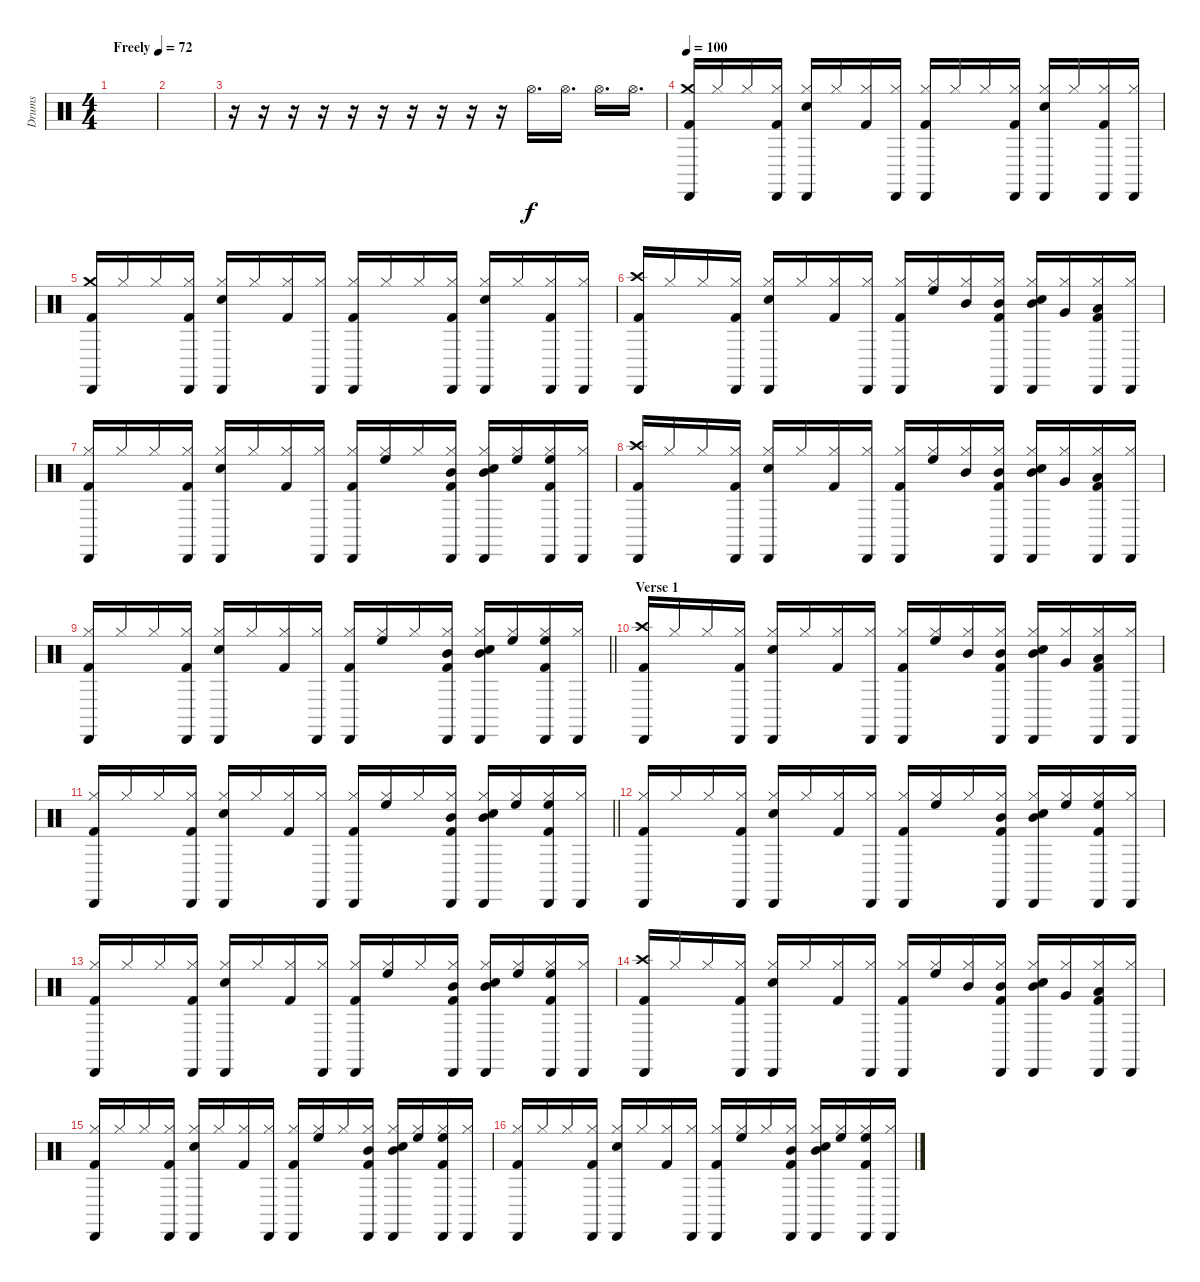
\track ("Drums" "Drums") {instrument percussion}
\staff {score}
\articulation defaults
\ts (4 4)
\tempo (72 "Freely")
\clef neutral
\ks c
|
|
r.16 r.16 r.16 r.16 r.16 r.16 r.16 r.16 r.16 r.16 "Hi-Hat (open)".16{d} "Hi-Hat (open)".16{d} "Hi-Hat (open)".16{d} "Hi-Hat (open)".16{d} |
\tempo 100
("Crash medium (hit)" "Cabasa (hit)" "Kick (hit) 2").16 "Hi-Hat (closed)".16 "Hi-Hat (closed)".16 ("Hi-Hat (closed)" "Cabasa (hit)" "Kick (hit) 2").16 ("Hi-Hat (closed)" "Cabasa (hit)" "Snare (hit) 2").16 "Hi-Hat (closed)".16 ("Hi-Hat (closed)" "Kick (hit) 2").16 ("Hi-Hat (closed)" "Cabasa (hit)").16 ("Hi-Hat (closed)" "Cabasa (hit)" "Kick (hit) 2").16 "Hi-Hat (closed)".16 "Hi-Hat (closed)".16 ("Hi-Hat (closed)" "Cabasa (hit)" "Kick (hit) 2").16 ("Hi-Hat (closed)" "Cabasa (hit)" "Snare (hit) 2").16 "Hi-Hat (closed)".16 ("Hi-Hat (closed)" "Cabasa (hit)" "Kick (hit) 2").16 ("Hi-Hat (closed)" "Cabasa (hit)").16 |
("Crash medium (hit)" "Cabasa (hit)" "Kick (hit) 2").16 "Hi-Hat (closed)".16 "Hi-Hat (closed)".16 ("Hi-Hat (closed)" "Cabasa (hit)" "Kick (hit) 2").16 ("Hi-Hat (closed)" "Cabasa (hit)" "Snare (hit) 2").16 "Hi-Hat (closed)".16 ("Hi-Hat (closed)" "Kick (hit) 2").16 ("Hi-Hat (closed)" "Cabasa (hit)").16 ("Hi-Hat (closed)" "Cabasa (hit)" "Kick (hit) 2").16 "Hi-Hat (closed)".16 "Hi-Hat (closed)".16 ("Hi-Hat (closed)" "Cabasa (hit)" "Kick (hit) 2").16 ("Hi-Hat (closed)" "Cabasa (hit)" "Snare (hit) 2").16 "Hi-Hat (closed)".16 ("Hi-Hat (closed)" "Cabasa (hit)" "Kick (hit) 2").16 ("Hi-Hat (closed)" "Cabasa (hit)").16 |
("Cabasa (hit)" "Crash high (hit)" "Kick (hit) 2").16 "Hi-Hat (closed)".16 "Hi-Hat (closed)".16 ("Hi-Hat (closed)" "Cabasa (hit)" "Kick (hit) 2").16 ("Hi-Hat (closed)" "Cabasa (hit)" "Snare (hit) 2").16 "Hi-Hat (closed)".16 ("Hi-Hat (closed)" "Kick (hit) 2").16 ("Hi-Hat (closed)" "Cabasa (hit)").16 ("Hi-Hat (closed)" "Cabasa (hit)" "Kick (hit) 2").16 ("Hi-Hat (closed)" "High Floor Tom (hit)").16 ("Hi-Hat (closed)" "Mid Tom (hit)").16 ("Hi-Hat (closed)" "Cabasa (hit)" "Mid Tom (hit)" "Kick (hit) 2").16 ("Hi-Hat (closed)" "Cabasa (hit)" "Mid Tom (hit)" "Snare (hit) 2").16 ("Hi-Hat (closed)" "Very Low Tom (hit)").16 ("Hi-Hat (closed)" "Cabasa (hit)" "Low Tom (hit)" "Kick (hit) 2").16 ("Hi-Hat (closed)" "Cabasa (hit)").16 |
("Hi-Hat (closed)" "Cabasa (hit)" "Kick (hit) 2").16 "Hi-Hat (closed)".16 "Hi-Hat (closed)".16 ("Hi-Hat (closed)" "Cabasa (hit)" "Kick (hit) 2").16 ("Hi-Hat (closed)" "Cabasa (hit)" "Snare (hit) 2").16 "Hi-Hat (closed)".16 ("Hi-Hat (closed)" "Kick (hit) 2").16 ("Hi-Hat (closed)" "Cabasa (hit)").16 ("Hi-Hat (closed)" "Cabasa (hit)" "Kick (hit) 2").16 ("Hi-Hat (closed)" "High Floor Tom (hit)").16 "Hi-Hat (closed)".16 ("Hi-Hat (closed)" "Cabasa (hit)" "Mid Tom (hit)" "Kick (hit) 2").16 ("Hi-Hat (closed)" "Cabasa (hit)" "Mid Tom (hit)" "Snare (hit) 2").16 ("Hi-Hat (closed)" "High Floor Tom (hit)").16 ("Hi-Hat (closed)" "Cabasa (hit)" "High Floor Tom (hit)" "Kick (hit) 2").16 ("Hi-Hat (closed)" "Cabasa (hit)").16 |
("Cabasa (hit)" "Crash high (hit)" "Kick (hit) 2").16 "Hi-Hat (closed)".16 "Hi-Hat (closed)".16 ("Hi-Hat (closed)" "Cabasa (hit)" "Kick (hit) 2").16 ("Hi-Hat (closed)" "Cabasa (hit)" "Snare (hit) 2").16 "Hi-Hat (closed)".16 ("Hi-Hat (closed)" "Kick (hit) 2").16 ("Hi-Hat (closed)" "Cabasa (hit)").16 ("Hi-Hat (closed)" "Cabasa (hit)" "Kick (hit) 2").16 ("Hi-Hat (closed)" "High Floor Tom (hit)").16 ("Hi-Hat (closed)" "Mid Tom (hit)").16 ("Hi-Hat (closed)" "Cabasa (hit)" "Mid Tom (hit)" "Kick (hit) 2").16 ("Hi-Hat (closed)" "Cabasa (hit)" "Mid Tom (hit)" "Snare (hit) 2").16 ("Hi-Hat (closed)" "Very Low Tom (hit)").16 ("Hi-Hat (closed)" "Cabasa (hit)" "Low Tom (hit)" "Kick (hit) 2").16 ("Hi-Hat (closed)" "Cabasa (hit)").16 |
\barLineRight lightlight
("Hi-Hat (closed)" "Cabasa (hit)" "Kick (hit) 2").16 "Hi-Hat (closed)".16 "Hi-Hat (closed)".16 ("Hi-Hat (closed)" "Cabasa (hit)" "Kick (hit) 2").16 ("Hi-Hat (closed)" "Cabasa (hit)" "Snare (hit) 2").16 "Hi-Hat (closed)".16 ("Hi-Hat (closed)" "Kick (hit) 2").16 ("Hi-Hat (closed)" "Cabasa (hit)").16 ("Hi-Hat (closed)" "Cabasa (hit)" "Kick (hit) 2").16 ("Hi-Hat (closed)" "High Floor Tom (hit)").16 "Hi-Hat (closed)".16 ("Hi-Hat (closed)" "Cabasa (hit)" "Mid Tom (hit)" "Kick (hit) 2").16 ("Hi-Hat (closed)" "Cabasa (hit)" "Mid Tom (hit)" "Snare (hit) 2").16 ("Hi-Hat (closed)" "High Floor Tom (hit)").16 ("Hi-Hat (closed)" "Cabasa (hit)" "High Floor Tom (hit)" "Kick (hit) 2").16 ("Hi-Hat (closed)" "Cabasa (hit)").16 |
\section ("" "Verse 1")
("Cabasa (hit)" "Crash high (hit)" "Kick (hit) 2").16 "Hi-Hat (closed)".16 "Hi-Hat (closed)".16 ("Hi-Hat (closed)" "Cabasa (hit)" "Kick (hit) 2").16 ("Hi-Hat (closed)" "Cabasa (hit)" "Snare (hit) 2").16 "Hi-Hat (closed)".16 ("Hi-Hat (closed)" "Kick (hit) 2").16 ("Hi-Hat (closed)" "Cabasa (hit)").16 ("Hi-Hat (closed)" "Cabasa (hit)" "Kick (hit) 2").16 ("Hi-Hat (closed)" "High Floor Tom (hit)").16 ("Hi-Hat (closed)" "Mid Tom (hit)").16 ("Hi-Hat (closed)" "Cabasa (hit)" "Mid Tom (hit)" "Kick (hit) 2").16 ("Hi-Hat (closed)" "Cabasa (hit)" "Mid Tom (hit)" "Snare (hit) 2").16 ("Hi-Hat (closed)" "Very Low Tom (hit)").16 ("Hi-Hat (closed)" "Cabasa (hit)" "Low Tom (hit)" "Kick (hit) 2").16 ("Hi-Hat (closed)" "Cabasa (hit)").16 |
\barLineRight lightlight
("Hi-Hat (closed)" "Cabasa (hit)" "Kick (hit) 2").16 "Hi-Hat (closed)".16 "Hi-Hat (closed)".16 ("Hi-Hat (closed)" "Cabasa (hit)" "Kick (hit) 2").16 ("Hi-Hat (closed)" "Cabasa (hit)" "Snare (hit) 2").16 "Hi-Hat (closed)".16 ("Hi-Hat (closed)" "Kick (hit) 2").16 ("Hi-Hat (closed)" "Cabasa (hit)").16 ("Hi-Hat (closed)" "Cabasa (hit)" "Kick (hit) 2").16 ("Hi-Hat (closed)" "High Floor Tom (hit)").16 "Hi-Hat (closed)".16 ("Hi-Hat (closed)" "Cabasa (hit)" "Mid Tom (hit)" "Kick (hit) 2").16 ("Hi-Hat (closed)" "Cabasa (hit)" "Mid Tom (hit)" "Snare (hit) 2").16 ("Hi-Hat (closed)" "High Floor Tom (hit)").16 ("Hi-Hat (closed)" "Cabasa (hit)" "High Floor Tom (hit)" "Kick (hit) 2").16 ("Hi-Hat (closed)" "Cabasa (hit)").16 |
("Hi-Hat (closed)" "Cabasa (hit)" "Kick (hit) 2").16 "Hi-Hat (closed)".16 "Hi-Hat (closed)".16 ("Hi-Hat (closed)" "Cabasa (hit)" "Kick (hit) 2").16 ("Hi-Hat (closed)" "Cabasa (hit)" "Snare (hit) 2").16 "Hi-Hat (closed)".16 ("Hi-Hat (closed)" "Kick (hit) 2").16 ("Hi-Hat (closed)" "Cabasa (hit)").16 ("Hi-Hat (closed)" "Cabasa (hit)" "Kick (hit) 2").16 ("Hi-Hat (closed)" "High Floor Tom (hit)").16 "Hi-Hat (closed)".16 ("Hi-Hat (closed)" "Cabasa (hit)" "Mid Tom (hit)" "Kick (hit) 2").16 ("Hi-Hat (closed)" "Cabasa (hit)" "Mid Tom (hit)" "Snare (hit) 2").16 ("Hi-Hat (closed)" "High Floor Tom (hit)").16 ("Hi-Hat (closed)" "Cabasa (hit)" "High Floor Tom (hit)" "Kick (hit) 2").16 ("Hi-Hat (closed)" "Cabasa (hit)").16 |
("Hi-Hat (closed)" "Cabasa (hit)" "Kick (hit) 2").16 "Hi-Hat (closed)".16 "Hi-Hat (closed)".16 ("Hi-Hat (closed)" "Cabasa (hit)" "Kick (hit) 2").16 ("Hi-Hat (closed)" "Cabasa (hit)" "Snare (hit) 2").16 "Hi-Hat (closed)".16 ("Hi-Hat (closed)" "Kick (hit) 2").16 ("Hi-Hat (closed)" "Cabasa (hit)").16 ("Hi-Hat (closed)" "Cabasa (hit)" "Kick (hit) 2").16 ("Hi-Hat (closed)" "High Floor Tom (hit)").16 "Hi-Hat (closed)".16 ("Hi-Hat (closed)" "Cabasa (hit)" "Mid Tom (hit)" "Kick (hit) 2").16 ("Hi-Hat (closed)" "Cabasa (hit)" "Mid Tom (hit)" "Snare (hit) 2").16 ("Hi-Hat (closed)" "High Floor Tom (hit)").16 ("Hi-Hat (closed)" "Cabasa (hit)" "High Floor Tom (hit)" "Kick (hit) 2").16 ("Hi-Hat (closed)" "Cabasa (hit)").16 |
("Cabasa (hit)" "Crash high (hit)" "Kick (hit) 2").16 "Hi-Hat (closed)".16 "Hi-Hat (closed)".16 ("Hi-Hat (closed)" "Cabasa (hit)" "Kick (hit) 2").16 ("Hi-Hat (closed)" "Cabasa (hit)" "Snare (hit) 2").16 "Hi-Hat (closed)".16 ("Hi-Hat (closed)" "Kick (hit) 2").16 ("Hi-Hat (closed)" "Cabasa (hit)").16 ("Hi-Hat (closed)" "Cabasa (hit)" "Kick (hit) 2").16 ("Hi-Hat (closed)" "High Floor Tom (hit)").16 ("Hi-Hat (closed)" "Mid Tom (hit)").16 ("Hi-Hat (closed)" "Cabasa (hit)" "Mid Tom (hit)" "Kick (hit) 2").16 ("Hi-Hat (closed)" "Cabasa (hit)" "Mid Tom (hit)" "Snare (hit) 2").16 ("Hi-Hat (closed)" "Very Low Tom (hit)").16 ("Hi-Hat (closed)" "Cabasa (hit)" "Low Tom (hit)" "Kick (hit) 2").16 ("Hi-Hat (closed)" "Cabasa (hit)").16 |
("Hi-Hat (closed)" "Cabasa (hit)" "Kick (hit) 2").16 "Hi-Hat (closed)".16 "Hi-Hat (closed)".16 ("Hi-Hat (closed)" "Cabasa (hit)" "Kick (hit) 2").16 ("Hi-Hat (closed)" "Cabasa (hit)" "Snare (hit) 2").16 "Hi-Hat (closed)".16 ("Hi-Hat (closed)" "Kick (hit) 2").16 ("Hi-Hat (closed)" "Cabasa (hit)").16 ("Hi-Hat (closed)" "Cabasa (hit)" "Kick (hit) 2").16 ("Hi-Hat (closed)" "High Floor Tom (hit)").16 "Hi-Hat (closed)".16 ("Hi-Hat (closed)" "Cabasa (hit)" "Mid Tom (hit)" "Kick (hit) 2").16 ("Hi-Hat (closed)" "Cabasa (hit)" "Mid Tom (hit)" "Snare (hit) 2").16 ("Hi-Hat (closed)" "High Floor Tom (hit)").16 ("Hi-Hat (closed)" "Cabasa (hit)" "High Floor Tom (hit)" "Kick (hit) 2").16 ("Hi-Hat (closed)" "Cabasa (hit)").16 |
("Hi-Hat (closed)" "Cabasa (hit)" "Kick (hit) 2").16 "Hi-Hat (closed)".16 "Hi-Hat (closed)".16 ("Hi-Hat (closed)" "Cabasa (hit)" "Kick (hit) 2").16 ("Hi-Hat (closed)" "Cabasa (hit)" "Snare (hit) 2").16 "Hi-Hat (closed)".16 ("Hi-Hat (closed)" "Kick (hit) 2").16 ("Hi-Hat (closed)" "Cabasa (hit)").16 ("Hi-Hat (closed)" "Cabasa (hit)" "Kick (hit) 2").16 ("Hi-Hat (closed)" "High Floor Tom (hit)").16 "Hi-Hat (closed)".16 ("Hi-Hat (closed)" "Cabasa (hit)" "Mid Tom (hit)" "Kick (hit) 2").16 ("Hi-Hat (closed)" "Cabasa (hit)" "Mid Tom (hit)" "Snare (hit) 2").16 ("Hi-Hat (closed)" "High Floor Tom (hit)").16 ("Hi-Hat (closed)" "Cabasa (hit)" "High Floor Tom (hit)" "Kick (hit) 2").16 ("Hi-Hat (closed)" "Cabasa (hit)").16
